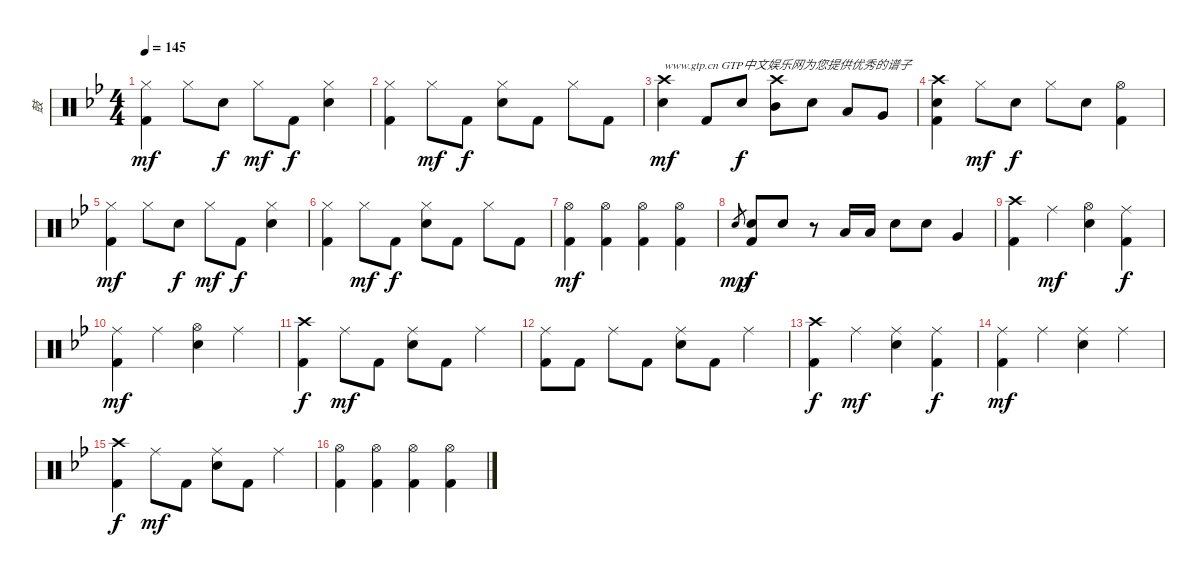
\track ("鼓" "鼓") {instrument percussion}
\staff {score}
\articulation defaults
\ts (4 4)
\tempo 145
\clef neutral
\ks bb
("Hi-Hat (closed)" "Kick (hit) 2").4{dy mf} "Hi-Hat (closed)".8 "Snare (hit) 2".8{dy f} "Hi-Hat (closed)".8{dy mf} "Kick (hit) 2".8{dy f} ("Hi-Hat (closed)" "Snare (hit) 2").4 |
("Hi-Hat (closed)" "Kick (hit) 2").4 "Hi-Hat (closed)".8{dy mf} "Kick (hit) 2".8{dy f} ("Hi-Hat (closed)" "Snare (hit) 2").8 "Kick (hit) 2".8 "Hi-Hat (closed)".8 "Kick (hit) 2".8 |
("Crash high (hit)" "Snare (hit) 2").4{txt "www.gtp.cn GTP中文娱乐网为您提供优秀的谱子" dy mf} "Kick (hit) 2".8 "Snare (hit) 2".8{dy f} ("Crash high (hit)" "Mid Tom (hit)").8 "Snare (hit) 2".8 "Low Tom (hit)".8 "Very Low Tom (hit)".8 |
("Crash high (hit)" "Snare (hit) 2" "Kick (hit) 2").4 "Hi-Hat (closed)".8{dy mf} "Snare (hit) 2".8{dy f} "Hi-Hat (closed)".8 "Snare (hit) 2".8 ("Hi-Hat (open)" "Kick (hit) 2").4 |
("Hi-Hat (closed)" "Kick (hit) 2").4{dy mf} "Hi-Hat (closed)".8 "Snare (hit) 2".8{dy f} "Hi-Hat (closed)".8{dy mf} "Kick (hit) 2".8{dy f} ("Hi-Hat (closed)" "Snare (hit) 2").4 |
("Hi-Hat (closed)" "Kick (hit) 2").4 "Hi-Hat (closed)".8{dy mf} "Kick (hit) 2".8{dy f} ("Hi-Hat (closed)" "Snare (hit) 2").8 "Kick (hit) 2".8 "Hi-Hat (closed)".8 "Kick (hit) 2".8 |
("Hi-Hat (open)" "Kick (hit) 2").4{dy mf} ("Hi-Hat (open)" "Kick (hit) 2").4 ("Hi-Hat (open)" "Kick (hit) 2").4 ("Hi-Hat (open)" "Kick (hit) 2").4 |
"Snare (hit) 2".8{gr dy mp} ("Snare (hit) 2" "Kick (hit) 2").8{dy f} "Snare (hit) 2".8 r.8 "Low Tom (hit)".16 "Low Tom (hit)".16 "Snare (hit) 2".8 "Snare (hit) 2".8 "Very Low Tom (hit)".4 |
("Crash high (hit)" "Kick (hit) 2").4 "Ride (middle)".4{dy mf} ("Hi-Hat (open)" "Snare (hit) 2").4 ("Ride (middle)" "Kick (hit) 2").4{dy f} |
("Ride (middle)" "Kick (hit) 2").4{dy mf} "Ride (middle)".4 ("Hi-Hat (open)" "Snare (hit) 2").4 "Ride (middle)".4 |
("Crash high (hit)" "Kick (hit) 2").4{dy f} "Ride (middle)".8{dy mf} "Kick (hit) 2".8 ("Ride (middle)" "Snare (hit) 2").8 "Kick (hit) 2".8 "Ride (middle)".4 |
("Ride (middle)" "Kick (hit) 2").8 "Kick (hit) 2".8 "Ride (middle)".8 "Kick (hit) 2".8 ("Ride (middle)" "Snare (hit) 2").8 "Kick (hit) 2".8 "Ride (middle)".4 |
("Crash high (hit)" "Kick (hit) 2").4{dy f} "Ride (middle)".4{dy mf} ("Ride (middle)" "Snare (hit) 2").4 ("Ride (middle)" "Kick (hit) 2").4{dy f} |
("Ride (middle)" "Kick (hit) 2").4{dy mf} "Ride (middle)".4 ("Ride (middle)" "Snare (hit) 2").4 "Ride (middle)".4 |
("Crash high (hit)" "Kick (hit) 2").4{dy f} "Ride (middle)".8{dy mf} "Kick (hit) 2".8 ("Ride (middle)" "Snare (hit) 2").8 "Kick (hit) 2".8 "Ride (middle)".4 |
("Hi-Hat (open)" "Kick (hit) 2").4 ("Hi-Hat (open)" "Kick (hit) 2").4 ("Hi-Hat (open)" "Kick (hit) 2").4 ("Hi-Hat (open)" "Kick (hit) 2").4
